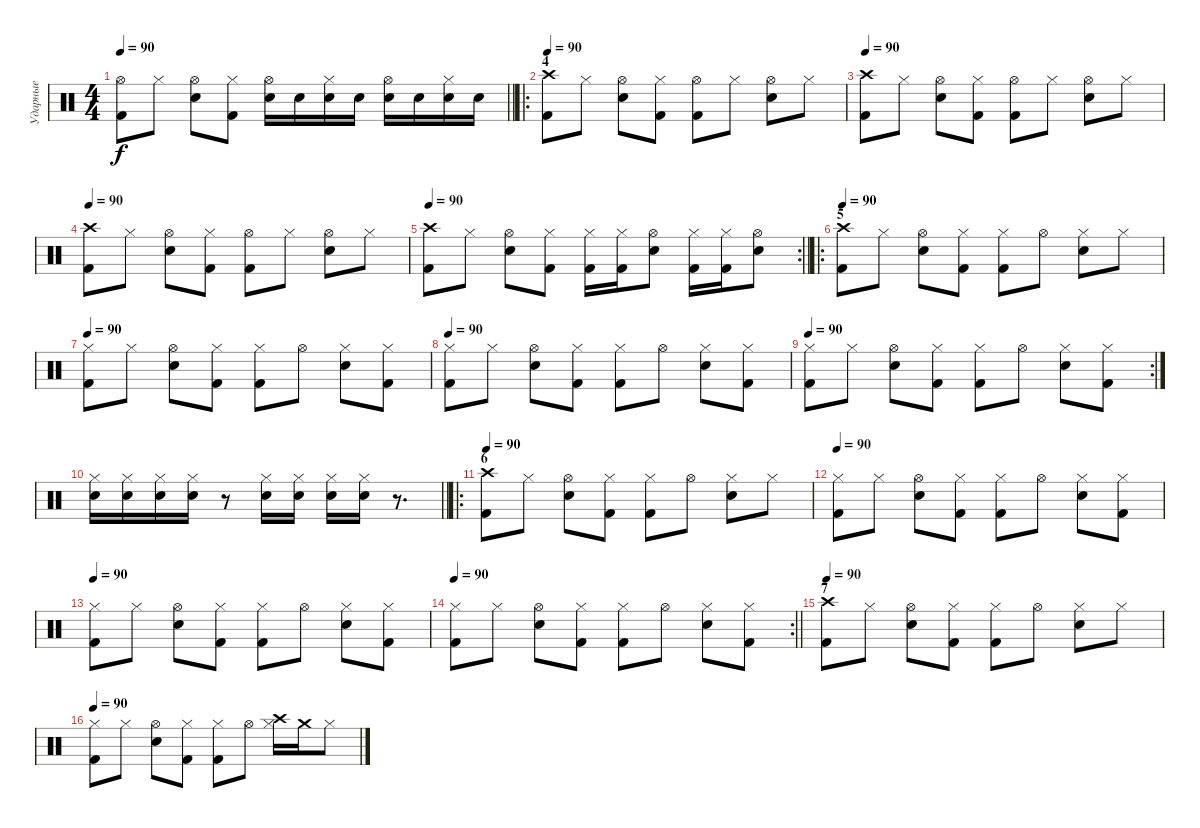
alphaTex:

\track ("Ударные" "Ударные") {solo instrument percussion}
\staff {score}
\articulation defaults
\ts (4 4)
\tempo 90
\clef neutral
\barLineRight lightlight
\ks c
("Hi-Hat (open)" "Kick (hit) 2").8{dy f} "Hi-Hat (closed)".8 ("Hi-Hat (open)" "Snare (hit) 2").8 ("Hi-Hat (closed)" "Kick (hit) 2").8 ("Hi-Hat (open)" "Snare (hit) 2").16 "Snare (hit) 2".16 ("Hi-Hat (closed)" "Snare (hit) 2").16 "Snare (hit) 2".16 ("Hi-Hat (open)" "Snare (hit) 2").16 "Snare (hit) 2".16 ("Hi-Hat (closed)" "Snare (hit) 2").16 "Snare (hit) 2".16 |
\ro
\section ("" "4")
\tempo 90
("Crash high (hit)" "Kick (hit) 2").8 "Hi-Hat (closed)".8 ("Hi-Hat (open)" "Snare (hit) 2").8 ("Hi-Hat (closed)" "Kick (hit) 2").8 ("Hi-Hat (open)" "Kick (hit) 2").8 "Hi-Hat (closed)".8 ("Hi-Hat (open)" "Snare (hit) 2").8 "Hi-Hat (closed)".8 |
\tempo 90
("Crash high (hit)" "Kick (hit) 2").8 "Hi-Hat (closed)".8 ("Hi-Hat (open)" "Snare (hit) 2").8 ("Hi-Hat (closed)" "Kick (hit) 2").8 ("Hi-Hat (open)" "Kick (hit) 2").8 "Hi-Hat (closed)".8 ("Hi-Hat (open)" "Snare (hit) 2").8 "Hi-Hat (closed)".8 |
\tempo 90
("Crash high (hit)" "Kick (hit) 2").8 "Hi-Hat (closed)".8 ("Hi-Hat (open)" "Snare (hit) 2").8 ("Hi-Hat (closed)" "Kick (hit) 2").8 ("Hi-Hat (open)" "Kick (hit) 2").8 "Hi-Hat (closed)".8 ("Hi-Hat (open)" "Snare (hit) 2").8 "Hi-Hat (closed)".8 |
\rc 2
\tempo 90
\barLineRight lightlight
("Crash high (hit)" "Kick (hit) 2").8 "Hi-Hat (closed)".8 ("Hi-Hat (open)" "Snare (hit) 2").8 ("Hi-Hat (closed)" "Kick (hit) 2").8 ("Hi-Hat (closed)" "Kick (hit) 2").16 ("Hi-Hat (closed)" "Kick (hit) 2").16 ("Hi-Hat (open)" "Snare (hit) 2").8 ("Hi-Hat (closed)" "Kick (hit) 2").16 ("Hi-Hat (closed)" "Kick (hit) 2").16 ("Hi-Hat (open)" "Snare (hit) 2").8 |
\ro
\section ("" "5")
\tempo 90
("Crash high (hit)" "Kick (hit) 2").8 "Hi-Hat (closed)".8 ("Hi-Hat (open)" "Snare (hit) 2").8 ("Hi-Hat (closed)" "Kick (hit) 2").8 ("Hi-Hat (closed)" "Kick (hit) 2").8 "Hi-Hat (open)".8 ("Hi-Hat (closed)" "Snare (hit) 2").8 "Hi-Hat (closed)".8 |
\tempo 90
("Hi-Hat (closed)" "Kick (hit) 2").8 "Hi-Hat (closed)".8 ("Hi-Hat (open)" "Snare (hit) 2").8 ("Hi-Hat (closed)" "Kick (hit) 2").8 ("Hi-Hat (closed)" "Kick (hit) 2").8 "Hi-Hat (open)".8 ("Hi-Hat (closed)" "Snare (hit) 2").8 ("Hi-Hat (closed)" "Kick (hit) 2").8 |
\tempo 90
("Hi-Hat (closed)" "Kick (hit) 2").8 "Hi-Hat (closed)".8 ("Hi-Hat (open)" "Snare (hit) 2").8 ("Hi-Hat (closed)" "Kick (hit) 2").8 ("Hi-Hat (closed)" "Kick (hit) 2").8 "Hi-Hat (open)".8 ("Hi-Hat (closed)" "Snare (hit) 2").8 ("Hi-Hat (closed)" "Kick (hit) 2").8 |
\rc 2
\tempo 90
("Hi-Hat (closed)" "Kick (hit) 2").8 "Hi-Hat (closed)".8 ("Hi-Hat (open)" "Snare (hit) 2").8 ("Hi-Hat (closed)" "Kick (hit) 2").8 ("Hi-Hat (closed)" "Kick (hit) 2").8 "Hi-Hat (open)".8 ("Hi-Hat (closed)" "Snare (hit) 2").8 ("Hi-Hat (closed)" "Kick (hit) 2").8 |
\barLineRight lightlight
("Snare (hit) 2" "Hi-Hat (closed)").16 ("Snare (hit) 2" "Hi-Hat (closed)").16 ("Snare (hit) 2" "Hi-Hat (closed)").16 ("Snare (hit) 2" "Hi-Hat (closed)").16 r.8 ("Snare (hit) 2" "Hi-Hat (closed)").16 ("Snare (hit) 2" "Hi-Hat (closed)").16 ("Snare (hit) 2" "Hi-Hat (closed)").16 ("Snare (hit) 2" "Hi-Hat (closed)").16 r.8{d} |
\ro
\section ("" "6")
\tempo 90
("Crash high (hit)" "Kick (hit) 2").8 "Hi-Hat (closed)".8 ("Hi-Hat (open)" "Snare (hit) 2").8 ("Hi-Hat (closed)" "Kick (hit) 2").8 ("Hi-Hat (closed)" "Kick (hit) 2").8 "Hi-Hat (open)".8 ("Hi-Hat (closed)" "Snare (hit) 2").8 "Hi-Hat (closed)".8 |
\tempo 90
("Hi-Hat (closed)" "Kick (hit) 2").8 "Hi-Hat (closed)".8 ("Hi-Hat (open)" "Snare (hit) 2").8 ("Hi-Hat (closed)" "Kick (hit) 2").8 ("Hi-Hat (closed)" "Kick (hit) 2").8 "Hi-Hat (open)".8 ("Hi-Hat (closed)" "Snare (hit) 2").8 ("Hi-Hat (closed)" "Kick (hit) 2").8 |
\tempo 90
("Hi-Hat (closed)" "Kick (hit) 2").8 "Hi-Hat (closed)".8 ("Hi-Hat (open)" "Snare (hit) 2").8 ("Hi-Hat (closed)" "Kick (hit) 2").8 ("Hi-Hat (closed)" "Kick (hit) 2").8 "Hi-Hat (open)".8 ("Hi-Hat (closed)" "Snare (hit) 2").8 ("Hi-Hat (closed)" "Kick (hit) 2").8 |
\rc 2
\tempo 90
\barLineRight lightlight
("Hi-Hat (closed)" "Kick (hit) 2").8 "Hi-Hat (closed)".8 ("Hi-Hat (open)" "Snare (hit) 2").8 ("Hi-Hat (closed)" "Kick (hit) 2").8 ("Hi-Hat (closed)" "Kick (hit) 2").8 "Hi-Hat (open)".8 ("Hi-Hat (closed)" "Snare (hit) 2").8 ("Hi-Hat (closed)" "Kick (hit) 2").8 |
\section ("" "7")
\tempo 90
("Crash high (hit)" "Kick (hit) 2").8 "Hi-Hat (closed)".8 ("Hi-Hat (open)" "Snare (hit) 2").8 ("Hi-Hat (closed)" "Kick (hit) 2").8 ("Hi-Hat (closed)" "Kick (hit) 2").8 "Hi-Hat (open)".8 ("Hi-Hat (closed)" "Snare (hit) 2").8 "Hi-Hat (closed)".8 |
\tempo 90
("Hi-Hat (closed)" "Kick (hit) 2").8 "Hi-Hat (closed)".8 ("Hi-Hat (open)" "Snare (hit) 2").8 ("Hi-Hat (closed)" "Kick (hit) 2").8 ("Hi-Hat (closed)" "Kick (hit) 2").8 "Hi-Hat (open)".8 ("Hi-Hat (closed)" "Crash high (hit)").16 "Crash medium (hit)".16 "Hi-Hat (closed)".8
